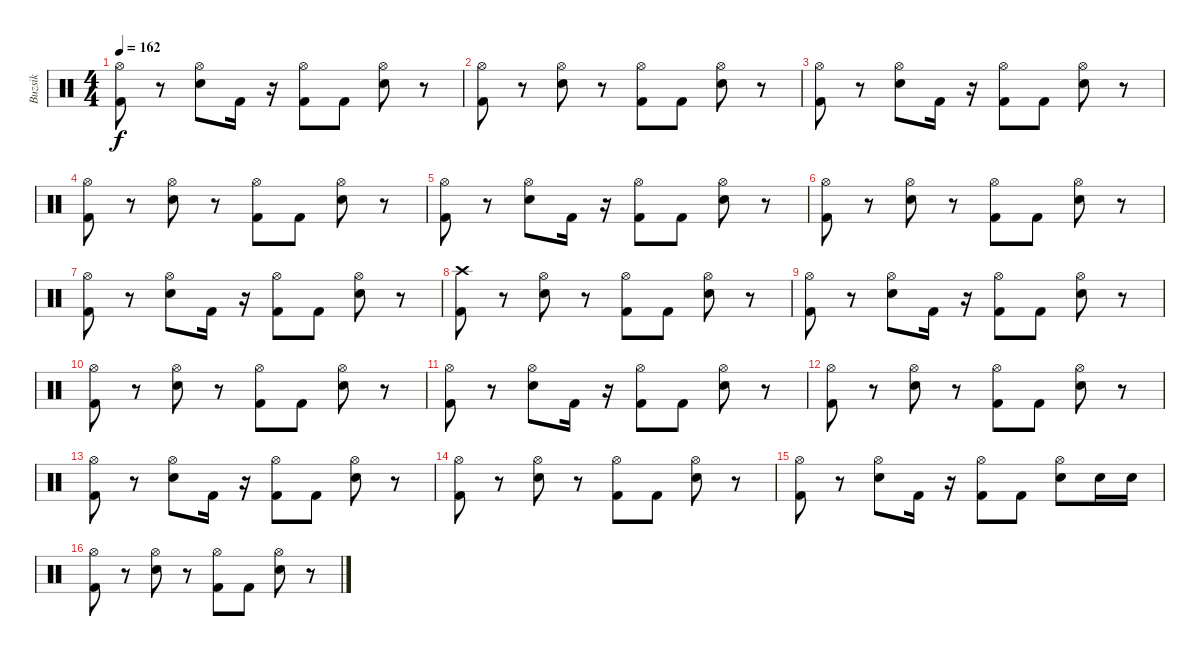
\track ("Buzsik" "Buzsik") {instrument percussion}
\staff {score}
\articulation defaults
\ts (4 4)
\tempo 162
\clef neutral
\ks c
("Hi-Hat (open)" "Kick (hit) 2").8{dy f} r.8 ("Hi-Hat (open)" "Electric Snare (hit)").8 "Kick (hit) 2".16 r.16 ("Hi-Hat (open)" "Kick (hit) 2").8 "Kick (hit) 2".8 ("Hi-Hat (open)" "Electric Snare (hit)").8 r.8 |
("Hi-Hat (open)" "Kick (hit) 2").8 r.8 ("Hi-Hat (open)" "Electric Snare (hit)").8 r.8 ("Hi-Hat (open)" "Kick (hit) 2").8 "Kick (hit) 2".8 ("Hi-Hat (open)" "Electric Snare (hit)").8 r.8 |
("Hi-Hat (open)" "Kick (hit) 2").8 r.8 ("Hi-Hat (open)" "Electric Snare (hit)").8 "Kick (hit) 2".16 r.16 ("Hi-Hat (open)" "Kick (hit) 2").8 "Kick (hit) 2".8 ("Hi-Hat (open)" "Electric Snare (hit)").8 r.8 |
("Hi-Hat (open)" "Kick (hit) 2").8 r.8 ("Hi-Hat (open)" "Electric Snare (hit)").8 r.8 ("Hi-Hat (open)" "Kick (hit) 2").8 "Kick (hit) 2".8 ("Hi-Hat (open)" "Electric Snare (hit)").8 r.8 |
("Hi-Hat (open)" "Kick (hit) 2").8 r.8 ("Hi-Hat (open)" "Electric Snare (hit)").8 "Kick (hit) 2".16 r.16 ("Hi-Hat (open)" "Kick (hit) 2").8 "Kick (hit) 2".8 ("Hi-Hat (open)" "Electric Snare (hit)").8 r.8 |
("Hi-Hat (open)" "Kick (hit) 2").8 r.8 ("Hi-Hat (open)" "Electric Snare (hit)").8 r.8 ("Hi-Hat (open)" "Kick (hit) 2").8 "Kick (hit) 2".8 ("Hi-Hat (open)" "Electric Snare (hit)").8 r.8 |
("Hi-Hat (open)" "Kick (hit) 2").8 r.8 ("Hi-Hat (open)" "Electric Snare (hit)").8 "Kick (hit) 2".16 r.16 ("Hi-Hat (open)" "Kick (hit) 2").8 "Kick (hit) 2".8 ("Hi-Hat (open)" "Electric Snare (hit)").8 r.8 |
("Crash high (hit)" "Kick (hit) 2").8 r.8 ("Hi-Hat (open)" "Electric Snare (hit)").8 r.8 ("Hi-Hat (open)" "Kick (hit) 2").8 "Kick (hit) 2".8 ("Hi-Hat (open)" "Electric Snare (hit)").8 r.8 |
("Hi-Hat (open)" "Kick (hit) 2").8 r.8 ("Hi-Hat (open)" "Electric Snare (hit)").8 "Kick (hit) 2".16 r.16 ("Hi-Hat (open)" "Kick (hit) 2").8 "Kick (hit) 2".8 ("Hi-Hat (open)" "Electric Snare (hit)").8 r.8 |
("Hi-Hat (open)" "Kick (hit) 2").8 r.8 ("Hi-Hat (open)" "Electric Snare (hit)").8 r.8 ("Hi-Hat (open)" "Kick (hit) 2").8 "Kick (hit) 2".8 ("Hi-Hat (open)" "Electric Snare (hit)").8 r.8 |
("Hi-Hat (open)" "Kick (hit) 2").8 r.8 ("Hi-Hat (open)" "Electric Snare (hit)").8 "Kick (hit) 2".16 r.16 ("Hi-Hat (open)" "Kick (hit) 2").8 "Kick (hit) 2".8 ("Hi-Hat (open)" "Electric Snare (hit)").8 r.8 |
("Hi-Hat (open)" "Kick (hit) 2").8 r.8 ("Hi-Hat (open)" "Electric Snare (hit)").8 r.8 ("Hi-Hat (open)" "Kick (hit) 2").8 "Kick (hit) 2".8 ("Hi-Hat (open)" "Electric Snare (hit)").8 r.8 |
("Hi-Hat (open)" "Kick (hit) 2").8 r.8 ("Hi-Hat (open)" "Electric Snare (hit)").8 "Kick (hit) 2".16 r.16 ("Hi-Hat (open)" "Kick (hit) 2").8 "Kick (hit) 2".8 ("Hi-Hat (open)" "Electric Snare (hit)").8 r.8 |
("Hi-Hat (open)" "Kick (hit) 2").8 r.8 ("Hi-Hat (open)" "Electric Snare (hit)").8 r.8 ("Hi-Hat (open)" "Kick (hit) 2").8 "Kick (hit) 2".8 ("Hi-Hat (open)" "Electric Snare (hit)").8 r.8 |
("Hi-Hat (open)" "Kick (hit) 2").8 r.8 ("Hi-Hat (open)" "Electric Snare (hit)").8 "Kick (hit) 2".16 r.16 ("Hi-Hat (open)" "Kick (hit) 2").8 "Kick (hit) 2".8 ("Hi-Hat (open)" "Electric Snare (hit)").8 "Electric Snare (hit)".16 "Electric Snare (hit)".16 |
("Hi-Hat (open)" "Kick (hit) 2").8 r.8 ("Hi-Hat (open)" "Electric Snare (hit)").8 r.8 ("Hi-Hat (open)" "Kick (hit) 2").8 "Kick (hit) 2".8 ("Hi-Hat (open)" "Electric Snare (hit)").8 r.8
